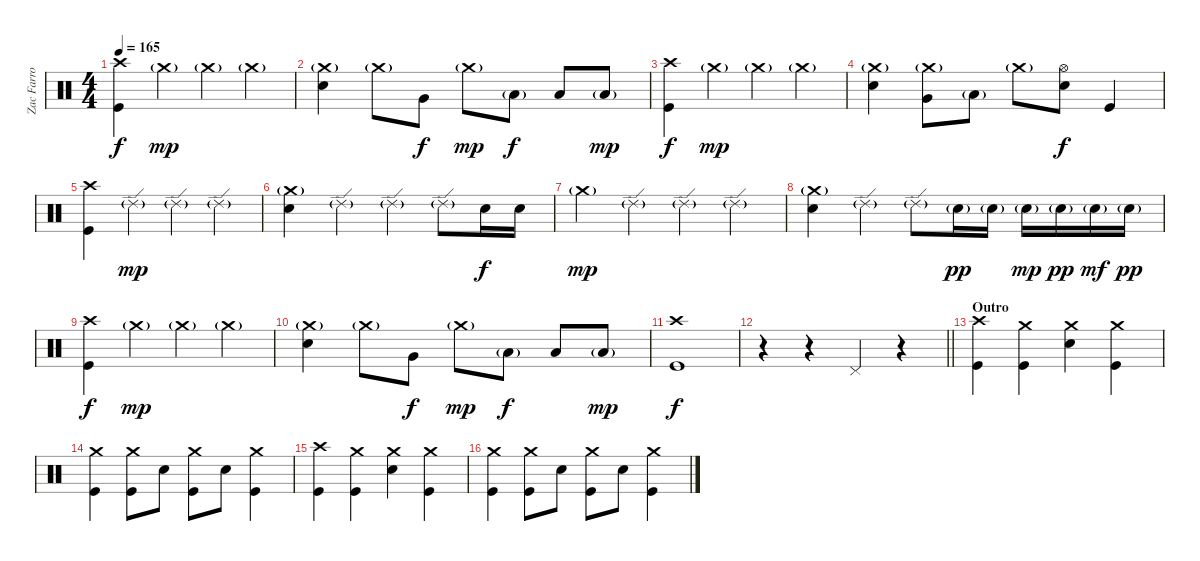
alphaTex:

\track ("Zac Farro (Drums)" "Zac Farro ") {instrument percussion}
\staff {score}
\articulation defaults
\ts (4 4)
\tempo 165
\clef neutral
\ks c
("Crash high (hit)" "Kick (hit)").4{dy f} "Crash medium (hit)"{g}.4{dy mp} "Crash medium (hit)"{g}.4 "Crash medium (hit)"{g}.4 |
("Crash medium (hit)"{g} "Electric Snare (hit)").4 "Crash medium (hit)"{g}.8 "Very Low Tom (hit)".8{dy f} "Crash medium (hit)"{g}.8{dy mp} "Low Floor Tom (hit)"{g}.8{dy f} "Low Floor Tom (hit)".8 "Low Floor Tom (hit)"{g}.8{dy mp} |
("Crash high (hit)" "Kick (hit)").4{dy f} "Crash medium (hit)"{g}.4{dy mp} "Crash medium (hit)"{g}.4 "Crash medium (hit)"{g}.4 |
("Crash medium (hit)"{g} "Electric Snare (hit)").4 ("Crash medium (hit)"{g} "Very Low Tom (hit)").8 "Low Floor Tom (hit)"{g}.8 "Crash medium (hit)"{g}.8 ("Hi-Hat (open)" "Electric Snare (hit)").8{dy f} "Kick (hit)".4 |
("Crash high (hit)" "Kick (hit)").4 "Ride (edge) 2"{g}.4{dy mp} "Ride (edge) 2"{g}.4 "Ride (edge) 2"{g}.4 |
("Crash medium (hit)"{g} "Electric Snare (hit)").4 "Ride (edge) 2"{g}.4 "Ride (edge) 2"{g}.4 "Ride (edge) 2"{g}.8 "Electric Snare (hit)".16{dy f} "Electric Snare (hit)".16 |
"Crash medium (hit)"{g}.4{dy mp} "Ride (edge) 2"{g}.4 "Ride (edge) 2"{g}.4 "Ride (edge) 2"{g}.4 |
("Crash medium (hit)"{g} "Electric Snare (hit)").4 "Ride (edge) 2"{g}.4 "Ride (edge) 2"{g}.8 "Electric Snare (hit)"{g}.16{dy pp} "Electric Snare (hit)"{g}.16 "Electric Snare (hit)"{g}.16{dy mp} "Electric Snare (hit)"{g}.16{dy pp} "Electric Snare (hit)"{g}.16{dy mf} "Electric Snare (hit)"{g}.16{dy pp} |
("Crash high (hit)" "Kick (hit)").4{dy f} "Crash medium (hit)"{g}.4{dy mp} "Crash medium (hit)"{g}.4 "Crash medium (hit)"{g}.4 |
("Crash medium (hit)"{g} "Electric Snare (hit)").4 "Crash medium (hit)"{g}.8 "Very Low Tom (hit)".8{dy f} "Crash medium (hit)"{g}.8{dy mp} "Low Floor Tom (hit)"{g}.8{dy f} "Low Floor Tom (hit)".8 "Low Floor Tom (hit)"{g}.8{dy mp} |
("Crash high (hit)" "Kick (hit)").1{dy f} |
\barLineRight lightlight
r.4 r.4 "Pedal Hi-Hat (hit)".4 r.4 |
\section ("" "Outro")
("Crash high (hit)" "Kick (hit)").4 ("Crash medium (hit)" "Kick (hit)").4 ("Crash medium (hit)" "Electric Snare (hit)").4 ("Crash medium (hit)" "Kick (hit)").4 |
("Crash medium (hit)" "Kick (hit)").4 ("Crash medium (hit)" "Kick (hit)").8 "Electric Snare (hit)".8 ("Crash medium (hit)" "Kick (hit)").8 "Electric Snare (hit)".8 ("Crash medium (hit)" "Kick (hit)").4 |
("Crash high (hit)" "Kick (hit)").4 ("Crash medium (hit)" "Kick (hit)").4 ("Crash medium (hit)" "Electric Snare (hit)").4 ("Crash medium (hit)" "Kick (hit)").4 |
("Crash medium (hit)" "Kick (hit)").4 ("Crash medium (hit)" "Kick (hit)").8 "Electric Snare (hit)".8 ("Crash medium (hit)" "Kick (hit)").8 "Electric Snare (hit)".8 ("Crash medium (hit)" "Kick (hit)").4
